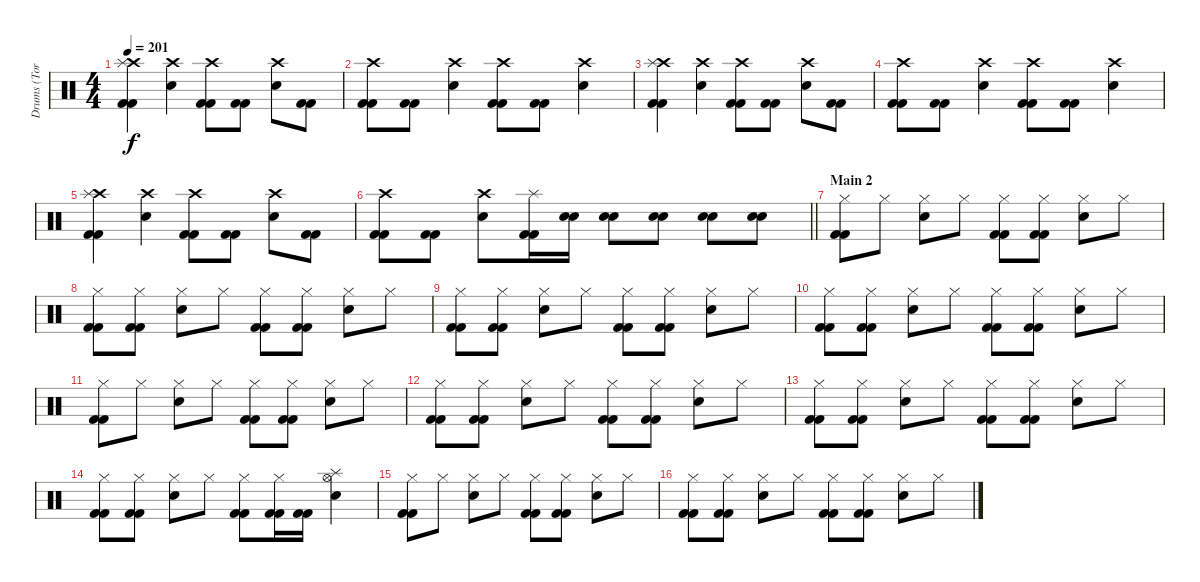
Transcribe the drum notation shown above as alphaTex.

\track ("Drums (Tora)" "Drums (Tor") {instrument percussion}
\staff {score}
\articulation defaults
\ts (4 4)
\tempo 201
\clef neutral
\ks c
("Kick (hit) 2" "Crash high (hit)" "Splash (hit)" "Kick (hit) 2").4{dy f} ("Crash high (hit)" "Snare (hit) 2").4 ("Kick (hit) 2" "Crash high (hit)" "Kick (hit) 2").8 ("Kick (hit) 2" "Kick (hit) 2").8 ("Crash high (hit)" "Snare (hit) 2").8 ("Kick (hit) 2" "Kick (hit) 2").8 |
("Crash high (hit)" "Kick (hit) 2" "Kick (hit) 2").8 ("Kick (hit) 2" "Kick (hit) 2").8 ("Crash high (hit)" "Snare (hit) 2").4 ("Crash high (hit)" "Kick (hit) 2" "Kick (hit) 2").8 ("Kick (hit) 2" "Kick (hit) 2").8 ("Crash high (hit)" "Snare (hit) 2").4 |
("Kick (hit) 2" "Crash high (hit)" "Splash (hit)" "Kick (hit) 2").4 ("Crash high (hit)" "Snare (hit) 2").4 ("Kick (hit) 2" "Crash high (hit)" "Kick (hit) 2").8 ("Kick (hit) 2" "Kick (hit) 2").8 ("Crash high (hit)" "Snare (hit) 2").8 ("Kick (hit) 2" "Kick (hit) 2").8 |
("Crash high (hit)" "Kick (hit) 2" "Kick (hit) 2").8 ("Kick (hit) 2" "Kick (hit) 2").8 ("Crash high (hit)" "Snare (hit) 2").4 ("Crash high (hit)" "Kick (hit) 2" "Kick (hit) 2").8 ("Kick (hit) 2" "Kick (hit) 2").8 ("Crash high (hit)" "Snare (hit) 2").4 |
("Kick (hit) 2" "Crash high (hit)" "Splash (hit)" "Kick (hit) 2").4 ("Crash high (hit)" "Snare (hit) 2").4 ("Kick (hit) 2" "Crash high (hit)" "Kick (hit) 2").8 ("Kick (hit) 2" "Kick (hit) 2").8 ("Crash high (hit)" "Snare (hit) 2").8 ("Kick (hit) 2" "Kick (hit) 2").8 |
\barLineRight lightlight
("Crash high (hit)" "Kick (hit) 2" "Kick (hit) 2").8 ("Kick (hit) 2" "Kick (hit) 2").8 ("Crash high (hit)" "Snare (hit) 2").8 ("Splash (hit)" "Kick (hit) 2" "Kick (hit) 2").16 ("Snare (hit) 2" "Snare (hit) 2").16 ("Snare (hit) 2" "Snare (hit) 2").8 ("Snare (hit) 2" "Snare (hit) 2").8 ("Snare (hit) 2" "Snare (hit) 2").8 ("Snare (hit) 2" "Snare (hit) 2").8 |
\section ("" "Main 2")
("Kick (hit) 2" "Kick (hit) 2" "Hi-Hat (closed)").8 "Hi-Hat (closed)".8 ("Snare (hit) 2" "Hi-Hat (closed)").8 "Hi-Hat (closed)".8 ("Kick (hit) 2" "Kick (hit) 2" "Hi-Hat (closed)").8 ("Kick (hit) 2" "Kick (hit) 2" "Hi-Hat (closed)").8 ("Snare (hit) 2" "Hi-Hat (closed)").8 "Hi-Hat (closed)".8 |
("Kick (hit) 2" "Kick (hit) 2" "Hi-Hat (closed)").8 ("Kick (hit) 2" "Kick (hit) 2" "Hi-Hat (closed)").8 ("Snare (hit) 2" "Hi-Hat (closed)").8 "Hi-Hat (closed)".8 ("Kick (hit) 2" "Kick (hit) 2" "Hi-Hat (closed)").8 ("Kick (hit) 2" "Kick (hit) 2" "Hi-Hat (closed)").8 ("Snare (hit) 2" "Hi-Hat (closed)").8 "Hi-Hat (closed)".8 |
("Kick (hit) 2" "Kick (hit) 2" "Hi-Hat (closed)").8 ("Kick (hit) 2" "Kick (hit) 2" "Hi-Hat (closed)").8 ("Snare (hit) 2" "Hi-Hat (closed)").8 "Hi-Hat (closed)".8 ("Kick (hit) 2" "Kick (hit) 2" "Hi-Hat (closed)").8 ("Kick (hit) 2" "Kick (hit) 2" "Hi-Hat (closed)").8 ("Snare (hit) 2" "Hi-Hat (closed)").8 "Hi-Hat (closed)".8 |
("Kick (hit) 2" "Kick (hit) 2" "Hi-Hat (closed)").8 ("Kick (hit) 2" "Kick (hit) 2" "Hi-Hat (closed)").8 ("Snare (hit) 2" "Hi-Hat (closed)").8 "Hi-Hat (closed)".8 ("Kick (hit) 2" "Kick (hit) 2" "Hi-Hat (closed)").8 ("Kick (hit) 2" "Kick (hit) 2" "Hi-Hat (closed)").8 ("Snare (hit) 2" "Hi-Hat (closed)").8 "Hi-Hat (closed)".8 |
("Kick (hit) 2" "Kick (hit) 2" "Hi-Hat (closed)").8 "Hi-Hat (closed)".8 ("Snare (hit) 2" "Hi-Hat (closed)").8 "Hi-Hat (closed)".8 ("Kick (hit) 2" "Kick (hit) 2" "Hi-Hat (closed)").8 ("Kick (hit) 2" "Kick (hit) 2" "Hi-Hat (closed)").8 ("Snare (hit) 2" "Hi-Hat (closed)").8 "Hi-Hat (closed)".8 |
("Kick (hit) 2" "Kick (hit) 2" "Hi-Hat (closed)").8 ("Kick (hit) 2" "Kick (hit) 2" "Hi-Hat (closed)").8 ("Snare (hit) 2" "Hi-Hat (closed)").8 "Hi-Hat (closed)".8 ("Kick (hit) 2" "Kick (hit) 2" "Hi-Hat (closed)").8 ("Kick (hit) 2" "Kick (hit) 2" "Hi-Hat (closed)").8 ("Snare (hit) 2" "Hi-Hat (closed)").8 "Hi-Hat (closed)".8 |
("Kick (hit) 2" "Kick (hit) 2" "Hi-Hat (closed)").8 ("Kick (hit) 2" "Kick (hit) 2" "Hi-Hat (closed)").8 ("Snare (hit) 2" "Hi-Hat (closed)").8 "Hi-Hat (closed)".8 ("Kick (hit) 2" "Kick (hit) 2" "Hi-Hat (closed)").8 ("Kick (hit) 2" "Kick (hit) 2" "Hi-Hat (closed)").8 ("Snare (hit) 2" "Hi-Hat (closed)").8 "Hi-Hat (closed)".8 |
("Kick (hit) 2" "Kick (hit) 2" "Hi-Hat (closed)").8 ("Kick (hit) 2" "Kick (hit) 2" "Hi-Hat (closed)").8 ("Snare (hit) 2" "Hi-Hat (closed)").8 "Hi-Hat (closed)".8 ("Hi-Hat (closed)" "Kick (hit) 2" "Kick (hit) 2").8 ("Hi-Hat (closed)" "Kick (hit) 2" "Kick (hit) 2").16 ("Kick (hit) 2" "Kick (hit) 2").16 ("Splash (hit)" "Hi-Hat (open)" "Snare (hit) 2").4 |
("Kick (hit) 2" "Kick (hit) 2" "Hi-Hat (closed)").8 "Hi-Hat (closed)".8 ("Snare (hit) 2" "Hi-Hat (closed)").8 "Hi-Hat (closed)".8 ("Kick (hit) 2" "Kick (hit) 2" "Hi-Hat (closed)").8 ("Kick (hit) 2" "Kick (hit) 2" "Hi-Hat (closed)").8 ("Snare (hit) 2" "Hi-Hat (closed)").8 "Hi-Hat (closed)".8 |
("Kick (hit) 2" "Kick (hit) 2" "Hi-Hat (closed)").8 ("Kick (hit) 2" "Kick (hit) 2" "Hi-Hat (closed)").8 ("Snare (hit) 2" "Hi-Hat (closed)").8 "Hi-Hat (closed)".8 ("Kick (hit) 2" "Kick (hit) 2" "Hi-Hat (closed)").8 ("Kick (hit) 2" "Kick (hit) 2" "Hi-Hat (closed)").8 ("Snare (hit) 2" "Hi-Hat (closed)").8 "Hi-Hat (closed)".8
